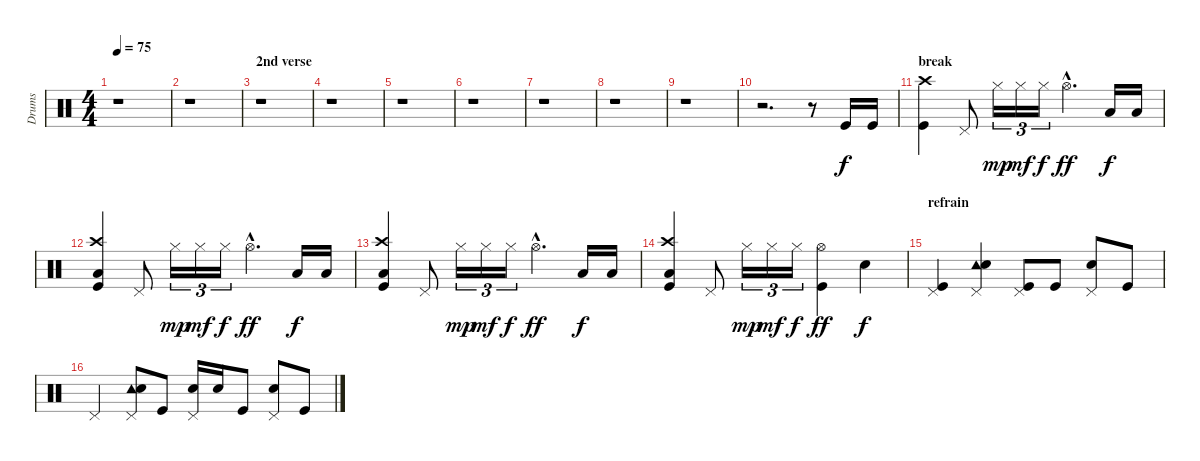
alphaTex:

\track ("Drums" "Drums") {instrument percussion}
\staff {score}
\articulation defaults
\ts (4 4)
\tempo 75
\clef neutral
\ks aminor
r.1{dy f} |
r.1 |
\section ("" "2nd verse")
r.1 |
r.1 |
r.1 |
r.1 |
r.1 |
r.1 |
r.1 |
r.2{d} r.8 "Kick (hit)".16 "Kick (hit)".16 |
\section ("" "break")
("Crash high (hit)" "Kick (hit)").4 "Pedal Hi-Hat (hit)".8 "Hi-Hat (closed)".16{tu (3 2) dy mp} "Hi-Hat (closed)".16{tu (3 2) dy mf} "Hi-Hat (closed)".16{tu (3 2) dy f} "Hi-Hat (open)"{hac}.4{d dy ff} "Low Floor Tom (hit)".16{dy f} "Low Floor Tom (hit)".16 |
("Crash high (hit)" "Low Floor Tom (hit)" "Kick (hit)").4 "Pedal Hi-Hat (hit)".8 "Hi-Hat (closed)".16{tu (3 2) dy mp} "Hi-Hat (closed)".16{tu (3 2) dy mf} "Hi-Hat (closed)".16{tu (3 2) dy f} "Hi-Hat (open)"{hac}.4{d dy ff} "Low Floor Tom (hit)".16{dy f} "Low Floor Tom (hit)".16 |
("Crash high (hit)" "Low Floor Tom (hit)" "Kick (hit)").4 "Pedal Hi-Hat (hit)".8 "Hi-Hat (closed)".16{tu (3 2) dy mp} "Hi-Hat (closed)".16{tu (3 2) dy mf} "Hi-Hat (closed)".16{tu (3 2) dy f} "Hi-Hat (open)"{hac}.4{d dy ff} "Low Floor Tom (hit)".16{dy f} "Low Floor Tom (hit)".16 |
("Crash high (hit)" "Low Floor Tom (hit)" "Kick (hit)").4 "Pedal Hi-Hat (hit)".8 "Hi-Hat (closed)".16{tu (3 2) dy mp} "Hi-Hat (closed)".16{tu (3 2) dy mf} "Hi-Hat (closed)".16{tu (3 2) dy f} ("Hi-Hat (open)" "Kick (hit)").4{dy ff} "Snare (hit) 2".4{dy f} |
\section ("" "refrain")
("Pedal Hi-Hat (hit)" "Kick (hit)").4 ("Pedal Hi-Hat (hit)" "Tambourine (hit)" "Snare (hit) 2").4 ("Pedal Hi-Hat (hit)" "Kick (hit)").8 "Kick (hit)".8 ("Pedal Hi-Hat (hit)" "Snare (hit) 2").8 "Kick (hit)".8 |
"Pedal Hi-Hat (hit)".4 ("Pedal Hi-Hat (hit)" "Tambourine (hit)" "Snare (hit) 2").8 "Kick (hit)".8 ("Pedal Hi-Hat (hit)" "Snare (hit) 2").16 "Snare (hit) 2".16 "Kick (hit)".8 ("Pedal Hi-Hat (hit)" "Snare (hit) 2").8 "Kick (hit)".8
